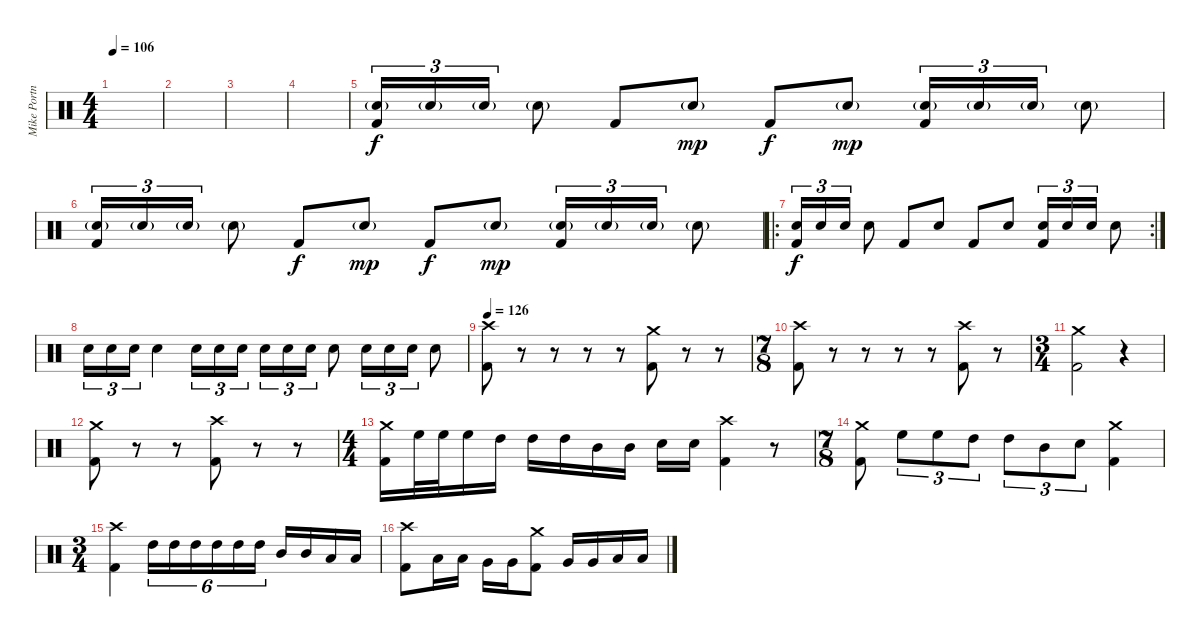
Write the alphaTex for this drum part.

\track ("Mike Portnoy" "Mike Portn") {instrument percussion}
\staff {score}
\articulation defaults
\ts (4 4)
\tempo 106
\clef neutral
\ks c
|
|
|
|
("Snare (hit) 2"{g} "Kick (hit) 2").16{tu (3 2)} "Snare (hit) 2"{g}.16{tu (3 2)} "Snare (hit) 2"{g}.16{tu (3 2)} "Snare (hit) 2"{g}.8 "Kick (hit) 2".8{dy f} "Snare (hit) 2"{g}.8{dy mp} "Kick (hit) 2".8{dy f} "Snare (hit) 2"{g}.8{dy mp} ("Snare (hit) 2"{g} "Kick (hit) 2").16{tu (3 2)} "Snare (hit) 2"{g}.16{tu (3 2)} "Snare (hit) 2"{g}.16{tu (3 2)} "Snare (hit) 2"{g}.8 |
("Snare (hit) 2"{g} "Kick (hit) 2").16{tu (3 2)} "Snare (hit) 2"{g}.16{tu (3 2)} "Snare (hit) 2"{g}.16{tu (3 2)} "Snare (hit) 2"{g}.8 "Kick (hit) 2".8{dy f} "Snare (hit) 2"{g}.8{dy mp} "Kick (hit) 2".8{dy f} "Snare (hit) 2"{g}.8{dy mp} ("Snare (hit) 2"{g} "Kick (hit) 2").16{tu (3 2)} "Snare (hit) 2"{g}.16{tu (3 2)} "Snare (hit) 2"{g}.16{tu (3 2)} "Snare (hit) 2"{g}.8 |
\ro
\rc 2
("Snare (hit) 2" "Kick (hit) 2").16{tu (3 2) dy f} "Snare (hit) 2".16{tu (3 2)} "Snare (hit) 2".16{tu (3 2)} "Snare (hit) 2".8 "Kick (hit) 2".8 "Snare (hit) 2".8 "Kick (hit) 2".8 "Snare (hit) 2".8 ("Snare (hit) 2" "Kick (hit) 2").16{tu (3 2)} "Snare (hit) 2".16{tu (3 2)} "Snare (hit) 2".16{tu (3 2)} "Snare (hit) 2".8 |
"Snare (hit) 2".16{tu (3 2)} "Snare (hit) 2".16{tu (3 2)} "Snare (hit) 2".16{tu (3 2)} "Snare (hit) 2".4 "Snare (hit) 2".16{tu (3 2)} "Snare (hit) 2".16{tu (3 2)} "Snare (hit) 2".16{tu (3 2)} "Snare (hit) 2".16{tu (3 2)} "Snare (hit) 2".16{tu (3 2)} "Snare (hit) 2".16{tu (3 2)} "Snare (hit) 2".8 "Snare (hit) 2".16{tu (3 2)} "Snare (hit) 2".16{tu (3 2)} "Snare (hit) 2".16{tu (3 2)} "Snare (hit) 2".8 |
\tempo 126
("Crash high (hit)" "Kick (hit) 2").8 r.8 r.8 r.8 r.8 ("Crash medium (hit)" "Kick (hit) 2").8 r.8 r.8 |
\ts (7 8)
("Crash high (hit)" "Kick (hit) 2").8 r.8 r.8 r.8 r.8 ("Crash high (hit)" "Kick (hit) 2").8 r.8 |
\ts (3 4)
("Crash medium (hit)" "Kick (hit) 2").2 r.4 |
("Crash medium (hit)" "Kick (hit) 2").8 r.8 r.8 ("Crash high (hit)" "Kick (hit) 2").8 r.8 r.8 |
\ts (4 4)
("Crash medium (hit)" "Kick (hit) 2").16 "High Floor Tom (hit)".32 "High Floor Tom (hit)".32 "High Floor Tom (hit)".16 "High Tom (hit)".16 "High Tom (hit)".16 "High Tom (hit)".16 "Mid Tom (hit)".16 "Mid Tom (hit)".16 "Snare (hit) 2".16 "Snare (hit) 2".16 ("Crash high (hit)" "Kick (hit) 2").4 r.8 |
\ts (7 8)
("Crash medium (hit)" "Kick (hit) 2").8 "High Floor Tom (hit)".8{tu (3 2)} "High Floor Tom (hit)".8{tu (3 2)} "High Tom (hit)".8{tu (3 2)} "High Tom (hit)".8{tu (3 2)} "Mid Tom (hit)".8{tu (3 2)} "Snare (hit) 2".8{tu (3 2)} ("Crash medium (hit)" "Kick (hit) 2").4 |
\ts (3 4)
("Crash high (hit)" "Kick (hit) 2").4 "High Tom (hit)".16{tu (6 4)} "High Tom (hit)".16{tu (6 4)} "High Tom (hit)".16{tu (6 4)} "High Tom (hit)".16{tu (6 4)} "High Tom (hit)".16{tu (6 4)} "High Tom (hit)".16{tu (6 4)} "Mid Tom (hit)".16 "Mid Tom (hit)".16 "Low Tom (hit)".16 "Low Tom (hit)".16 |
("Crash high (hit)" "Kick (hit) 2").8 "Low Tom (hit)".16 "Low Tom (hit)".16 "Very Low Tom (hit)".16 "Very Low Tom (hit)".16 ("Crash medium (hit)" "Kick (hit) 2").8 "Very Low Tom (hit)".16 "Very Low Tom (hit)".16 "Low Floor Tom (hit)".16 "Low Floor Tom (hit)".16
